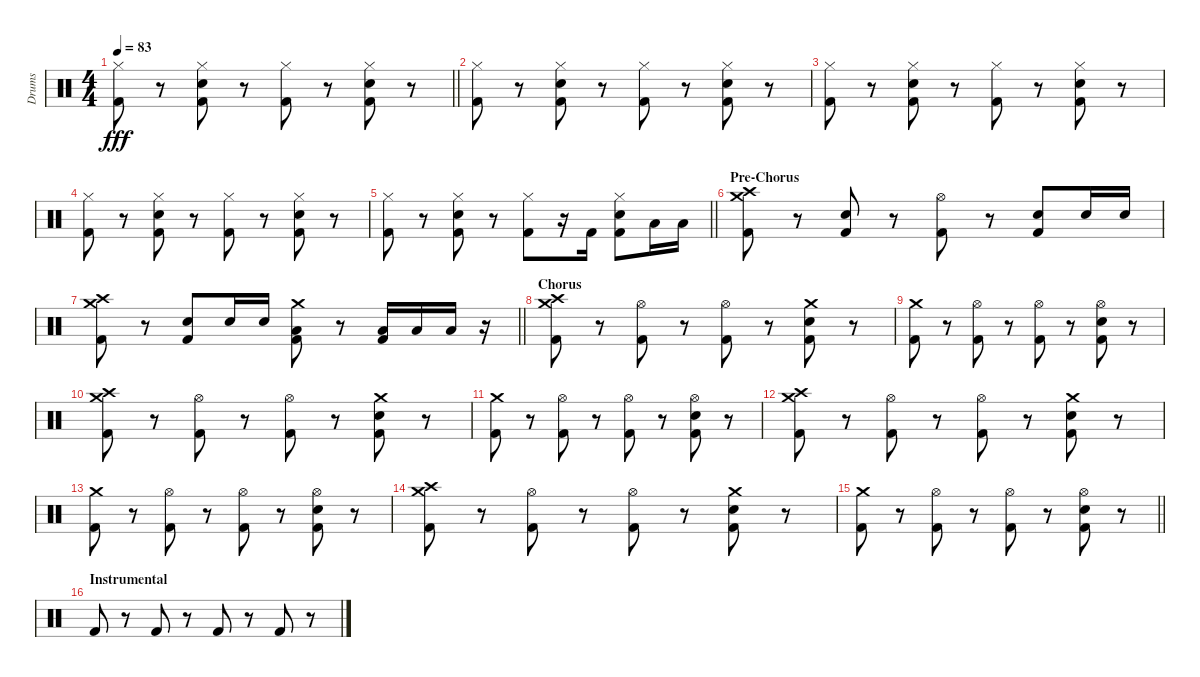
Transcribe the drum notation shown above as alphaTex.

\track ("Drums" "Drums") {instrument percussion}
\staff {score}
\articulation defaults
\ts (4 4)
\tempo 83
\clef neutral
\barLineRight lightlight
\ks c
("Hi-Hat (closed)" "Kick (hit) 2").8{dy fff} r.8 ("Hi-Hat (closed)" "Snare (hit) 2" "Kick (hit) 2").8 r.8 ("Hi-Hat (closed)" "Kick (hit) 2").8 r.8 ("Hi-Hat (closed)" "Snare (hit) 2" "Kick (hit) 2").8 r.8 |
("Hi-Hat (closed)" "Kick (hit) 2").8 r.8 ("Hi-Hat (closed)" "Snare (hit) 2" "Kick (hit) 2").8 r.8 ("Hi-Hat (closed)" "Kick (hit) 2").8 r.8 ("Hi-Hat (closed)" "Snare (hit) 2" "Kick (hit) 2").8 r.8 |
("Hi-Hat (closed)" "Kick (hit) 2").8 r.8 ("Hi-Hat (closed)" "Snare (hit) 2" "Kick (hit) 2").8 r.8 ("Hi-Hat (closed)" "Kick (hit) 2").8 r.8 ("Hi-Hat (closed)" "Snare (hit) 2" "Kick (hit) 2").8 r.8 |
("Hi-Hat (closed)" "Kick (hit) 2").8 r.8 ("Hi-Hat (closed)" "Snare (hit) 2" "Kick (hit) 2").8 r.8 ("Hi-Hat (closed)" "Kick (hit) 2").8 r.8 ("Hi-Hat (closed)" "Snare (hit) 2" "Kick (hit) 2").8 r.8 |
\barLineRight lightlight
("Hi-Hat (closed)" "Kick (hit) 2").8 r.8 ("Hi-Hat (closed)" "Snare (hit) 2" "Kick (hit) 2").8 r.8 ("Hi-Hat (closed)" "Kick (hit) 2").8 r.16 "Kick (hit) 2".16 ("Hi-Hat (closed)" "Snare (hit) 2" "Kick (hit) 2").8 "Low Tom (hit)".16 "Low Floor Tom (hit)".16 |
\section ("" "Pre-Chorus")
("Crash high (hit)" "Crash medium (hit)" "Kick (hit) 2").8 r.8 ("Snare (hit) 2" "Kick (hit) 2").8 r.8 ("Hi-Hat (open)" "Kick (hit) 2").8 r.8 ("Snare (hit) 2" "Kick (hit) 2").8 "Snare (hit) 2".16 "Snare (hit) 2".16 |
\barLineRight lightlight
("Crash high (hit)" "Crash medium (hit)" "Kick (hit) 2").8 r.8 ("Snare (hit) 2" "Kick (hit) 2").8 "Snare (hit) 2".16 "Snare (hit) 2".16 ("Crash medium (hit)" "Low Floor Tom (hit)" "Kick (hit) 2").8 r.8 ("Low Tom (hit)" "Kick (hit) 2").16 "Low Floor Tom (hit)".16 "Low Floor Tom (hit)".16 r.16 |
\section ("" "Chorus")
("Crash medium (hit)" "Crash high (hit)" "Kick (hit) 2").8 r.8 ("Hi-Hat (open)" "Kick (hit) 2").8 r.8 ("Hi-Hat (open)" "Kick (hit) 2").8 r.8 ("Crash medium (hit)" "Snare (hit) 2" "Kick (hit) 2").8 r.8 |
("Crash medium (hit)" "Kick (hit) 2").8 r.8 ("Hi-Hat (open)" "Kick (hit) 2").8 r.8 ("Hi-Hat (open)" "Kick (hit) 2").8 r.8 ("Hi-Hat (open)" "Snare (hit) 2" "Kick (hit) 2").8 r.8 |
("Crash medium (hit)" "Crash high (hit)" "Kick (hit) 2").8 r.8 ("Hi-Hat (open)" "Kick (hit) 2").8 r.8 ("Hi-Hat (open)" "Kick (hit) 2").8 r.8 ("Crash medium (hit)" "Snare (hit) 2" "Kick (hit) 2").8 r.8 |
("Crash medium (hit)" "Kick (hit) 2").8 r.8 ("Hi-Hat (open)" "Kick (hit) 2").8 r.8 ("Hi-Hat (open)" "Kick (hit) 2").8 r.8 ("Hi-Hat (open)" "Snare (hit) 2" "Kick (hit) 2").8 r.8 |
("Crash medium (hit)" "Crash high (hit)" "Kick (hit) 2").8 r.8 ("Hi-Hat (open)" "Kick (hit) 2").8 r.8 ("Hi-Hat (open)" "Kick (hit) 2").8 r.8 ("Crash medium (hit)" "Snare (hit) 2" "Kick (hit) 2").8 r.8 |
("Crash medium (hit)" "Kick (hit) 2").8 r.8 ("Hi-Hat (open)" "Kick (hit) 2").8 r.8 ("Hi-Hat (open)" "Kick (hit) 2").8 r.8 ("Hi-Hat (open)" "Snare (hit) 2" "Kick (hit) 2").8 r.8 |
("Crash medium (hit)" "Crash high (hit)" "Kick (hit) 2").8 r.8 ("Hi-Hat (open)" "Kick (hit) 2").8 r.8 ("Hi-Hat (open)" "Kick (hit) 2").8 r.8 ("Crash medium (hit)" "Snare (hit) 2" "Kick (hit) 2").8 r.8 |
\barLineRight lightlight
("Crash medium (hit)" "Kick (hit) 2").8 r.8 ("Hi-Hat (open)" "Kick (hit) 2").8 r.8 ("Hi-Hat (open)" "Kick (hit) 2").8 r.8 ("Hi-Hat (open)" "Snare (hit) 2" "Kick (hit) 2").8 r.8 |
\section ("" "Instrumental")
"Kick (hit) 2".8 r.8 "Kick (hit) 2".8 r.8 "Kick (hit) 2".8 r.8 "Kick (hit) 2".8 r.8
